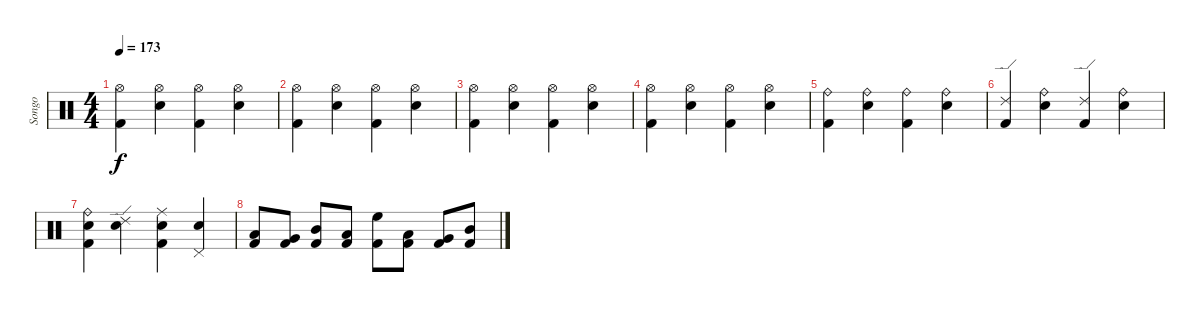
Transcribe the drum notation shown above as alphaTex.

\track ("Songo" "Songo") {instrument percussion}
\staff {score}
\articulation defaults
\ts (4 4)
\tempo 173
\clef neutral
\ks c
("Hi-Hat (open)" "Kick (hit) 2").4{dy f} ("Hi-Hat (open)" "Electric Snare (hit)").4 ("Hi-Hat (open)" "Kick (hit) 2").4 ("Hi-Hat (open)" "Electric Snare (hit)").4 |
("Hi-Hat (open)" "Kick (hit) 2").4 ("Hi-Hat (open)" "Electric Snare (hit)").4 ("Hi-Hat (open)" "Kick (hit) 2").4 ("Hi-Hat (open)" "Electric Snare (hit)").4 |
("Hi-Hat (open)" "Kick (hit) 2").4 ("Hi-Hat (open)" "Electric Snare (hit)").4 ("Hi-Hat (open)" "Kick (hit) 2").4 ("Hi-Hat (open)" "Electric Snare (hit)").4 |
("Hi-Hat (open)" "Kick (hit) 2").4 ("Hi-Hat (open)" "Electric Snare (hit)").4 ("Hi-Hat (open)" "Kick (hit) 2").4 ("Hi-Hat (open)" "Electric Snare (hit)").4 |
("Ride (bell)" "Kick (hit) 2").4 ("Ride (bell)" "Electric Snare (hit)").4 ("Ride (bell)" "Kick (hit) 2").4 ("Ride (bell)" "Electric Snare (hit)").4 |
("Ride (edge) 2" "Kick (hit) 2").4 ("Ride (bell)" "Electric Snare (hit)").4 ("Ride (edge) 2" "Kick (hit) 2").4 ("Ride (bell)" "Electric Snare (hit)").4 |
("Ride (bell)" "Electric Snare (hit)" "Kick (hit) 2").4 ("Ride (edge) 2" "Electric Snare (hit)").4 ("Ride (middle)" "Electric Snare (hit)" "Kick (hit) 2").4 ("Pedal Hi-Hat (hit)" "Electric Snare (hit)").4 |
("Low Tom (hit)" "Kick (hit) 2").8 ("Very Low Tom (hit)" "Kick (hit) 2").8 ("Mid Tom (hit)" "Kick (hit) 2").8 ("Low Floor Tom (hit)" "Kick (hit) 2").8 ("High Floor Tom (hit)" "Kick (hit) 2").8 ("Low Tom (hit)" "Kick (hit) 2").8 ("Very Low Tom (hit)" "Kick (hit) 2").8 ("Mid Tom (hit)" "Kick (hit) 2").8
